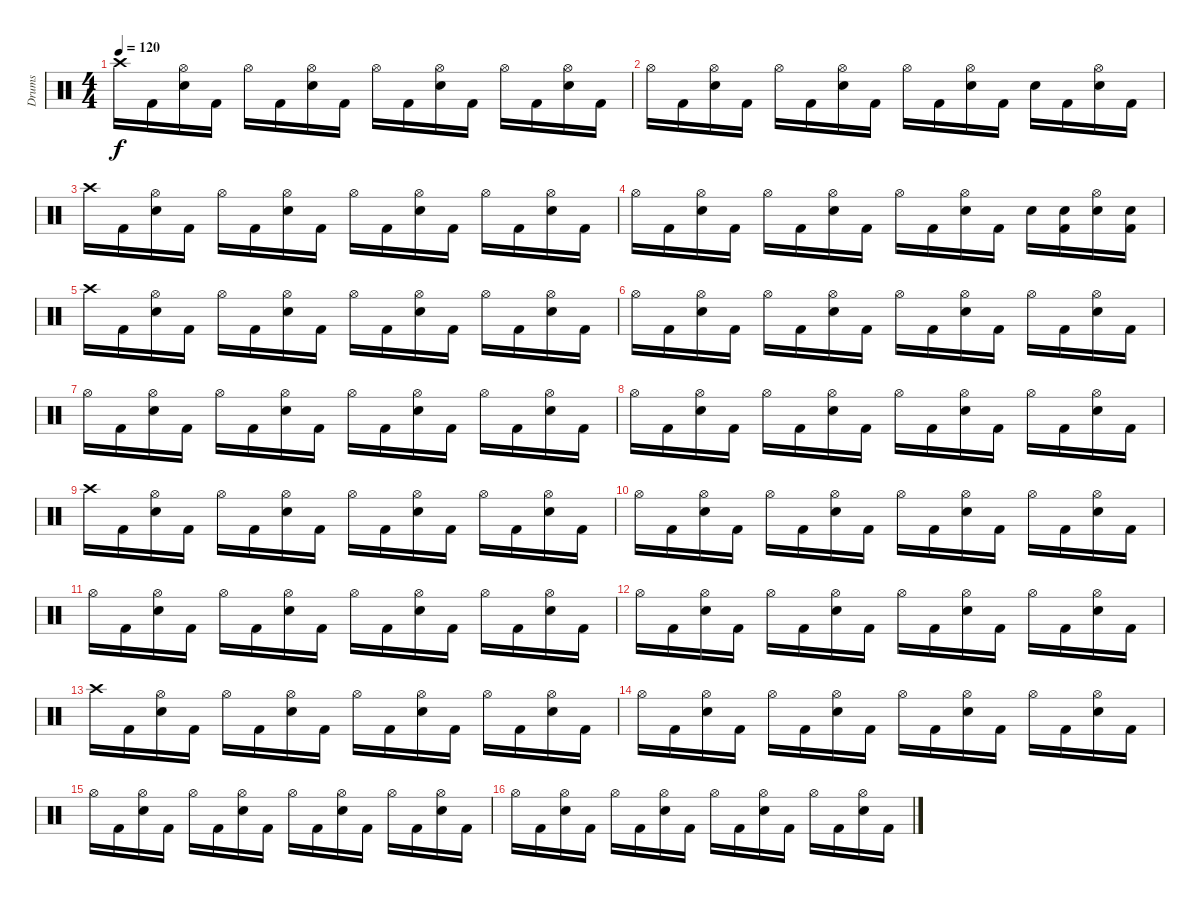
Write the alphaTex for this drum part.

\track ("Drums" "Drums") {instrument percussion}
\staff {score}
\articulation defaults
\ts (4 4)
\tempo 120
\clef neutral
\ks c "Crash high (hit)".16{dy f} "Kick (hit) 2".16
("Snare (hit) 2" "Hi-Hat (open)").16 "Kick (hit) 2".16 "Hi-Hat (open)".16 "Kick (hit) 2".16 ("Snare (hit) 2" "Hi-Hat (open)").16 "Kick (hit) 2".16 "Hi-Hat (open)".16 "Kick (hit) 2".16 ("Snare (hit) 2" "Hi-Hat (open)").16 "Kick (hit) 2".16 "Hi-Hat (open)".16 "Kick (hit) 2".16 ("Snare (hit) 2" "Hi-Hat (open)").16 "Kick (hit) 2".16 |
"Hi-Hat (open)".16 "Kick (hit) 2".16 ("Snare (hit) 2" "Hi-Hat (open)").16 "Kick (hit) 2".16 "Hi-Hat (open)".16 "Kick (hit) 2".16 ("Snare (hit) 2" "Hi-Hat (open)").16 "Kick (hit) 2".16 "Hi-Hat (open)".16 "Kick (hit) 2".16 ("Snare (hit) 2" "Hi-Hat (open)").16 "Kick (hit) 2".16 "Snare (hit) 2".16 "Kick (hit) 2".16 ("Snare (hit) 2" "Hi-Hat (open)").16 "Kick (hit) 2".16 |
"Crash high (hit)".16 "Kick (hit) 2".16 ("Snare (hit) 2" "Hi-Hat (open)").16 "Kick (hit) 2".16 "Hi-Hat (open)".16 "Kick (hit) 2".16 ("Snare (hit) 2" "Hi-Hat (open)").16 "Kick (hit) 2".16 "Hi-Hat (open)".16 "Kick (hit) 2".16 ("Snare (hit) 2" "Hi-Hat (open)").16 "Kick (hit) 2".16 "Hi-Hat (open)".16 "Kick (hit) 2".16 ("Snare (hit) 2" "Hi-Hat (open)").16 "Kick (hit) 2".16 |
"Hi-Hat (open)".16 "Kick (hit) 2".16 ("Snare (hit) 2" "Hi-Hat (open)").16 "Kick (hit) 2".16 "Hi-Hat (open)".16 "Kick (hit) 2".16 ("Snare (hit) 2" "Hi-Hat (open)").16 "Kick (hit) 2".16 "Hi-Hat (open)".16 "Kick (hit) 2".16 ("Snare (hit) 2" "Hi-Hat (open)").16 "Kick (hit) 2".16 "Snare (hit) 2".16 ("Kick (hit) 2" "Snare (hit) 2").16 ("Snare (hit) 2" "Hi-Hat (open)").16 ("Kick (hit) 2" "Snare (hit) 2").16 |
"Crash high (hit)".16 "Kick (hit) 2".16 ("Snare (hit) 2" "Hi-Hat (open)").16 "Kick (hit) 2".16 "Hi-Hat (open)".16 "Kick (hit) 2".16 ("Snare (hit) 2" "Hi-Hat (open)").16 "Kick (hit) 2".16 "Hi-Hat (open)".16 "Kick (hit) 2".16 ("Snare (hit) 2" "Hi-Hat (open)").16 "Kick (hit) 2".16 "Hi-Hat (open)".16 "Kick (hit) 2".16 ("Snare (hit) 2" "Hi-Hat (open)").16 "Kick (hit) 2".16 |
"Hi-Hat (open)".16 "Kick (hit) 2".16 ("Snare (hit) 2" "Hi-Hat (open)").16 "Kick (hit) 2".16 "Hi-Hat (open)".16 "Kick (hit) 2".16 ("Snare (hit) 2" "Hi-Hat (open)").16 "Kick (hit) 2".16 "Hi-Hat (open)".16 "Kick (hit) 2".16 ("Snare (hit) 2" "Hi-Hat (open)").16 "Kick (hit) 2".16 "Hi-Hat (open)".16 "Kick (hit) 2".16 ("Snare (hit) 2" "Hi-Hat (open)").16 "Kick (hit) 2".16 |
"Hi-Hat (open)".16 "Kick (hit) 2".16 ("Snare (hit) 2" "Hi-Hat (open)").16 "Kick (hit) 2".16 "Hi-Hat (open)".16 "Kick (hit) 2".16 ("Snare (hit) 2" "Hi-Hat (open)").16 "Kick (hit) 2".16 "Hi-Hat (open)".16 "Kick (hit) 2".16 ("Snare (hit) 2" "Hi-Hat (open)").16 "Kick (hit) 2".16 "Hi-Hat (open)".16 "Kick (hit) 2".16 ("Snare (hit) 2" "Hi-Hat (open)").16 "Kick (hit) 2".16 |
"Hi-Hat (open)".16 "Kick (hit) 2".16 ("Snare (hit) 2" "Hi-Hat (open)").16 "Kick (hit) 2".16 "Hi-Hat (open)".16 "Kick (hit) 2".16 ("Snare (hit) 2" "Hi-Hat (open)").16 "Kick (hit) 2".16 "Hi-Hat (open)".16 "Kick (hit) 2".16 ("Snare (hit) 2" "Hi-Hat (open)").16 "Kick (hit) 2".16 "Hi-Hat (open)".16 "Kick (hit) 2".16 ("Snare (hit) 2" "Hi-Hat (open)").16 "Kick (hit) 2".16 |
"Crash high (hit)".16 "Kick (hit) 2".16 ("Snare (hit) 2" "Hi-Hat (open)").16 "Kick (hit) 2".16 "Hi-Hat (open)".16 "Kick (hit) 2".16 ("Snare (hit) 2" "Hi-Hat (open)").16 "Kick (hit) 2".16 "Hi-Hat (open)".16 "Kick (hit) 2".16 ("Snare (hit) 2" "Hi-Hat (open)").16 "Kick (hit) 2".16 "Hi-Hat (open)".16 "Kick (hit) 2".16 ("Snare (hit) 2" "Hi-Hat (open)").16 "Kick (hit) 2".16 |
"Hi-Hat (open)".16 "Kick (hit) 2".16 ("Snare (hit) 2" "Hi-Hat (open)").16 "Kick (hit) 2".16 "Hi-Hat (open)".16 "Kick (hit) 2".16 ("Snare (hit) 2" "Hi-Hat (open)").16 "Kick (hit) 2".16 "Hi-Hat (open)".16 "Kick (hit) 2".16 ("Snare (hit) 2" "Hi-Hat (open)").16 "Kick (hit) 2".16 "Hi-Hat (open)".16 "Kick (hit) 2".16 ("Snare (hit) 2" "Hi-Hat (open)").16 "Kick (hit) 2".16 |
"Hi-Hat (open)".16 "Kick (hit) 2".16 ("Snare (hit) 2" "Hi-Hat (open)").16 "Kick (hit) 2".16 "Hi-Hat (open)".16 "Kick (hit) 2".16 ("Snare (hit) 2" "Hi-Hat (open)").16 "Kick (hit) 2".16 "Hi-Hat (open)".16 "Kick (hit) 2".16 ("Snare (hit) 2" "Hi-Hat (open)").16 "Kick (hit) 2".16 "Hi-Hat (open)".16 "Kick (hit) 2".16 ("Snare (hit) 2" "Hi-Hat (open)").16 "Kick (hit) 2".16 |
"Hi-Hat (open)".16 "Kick (hit) 2".16 ("Snare (hit) 2" "Hi-Hat (open)").16 "Kick (hit) 2".16 "Hi-Hat (open)".16 "Kick (hit) 2".16 ("Snare (hit) 2" "Hi-Hat (open)").16 "Kick (hit) 2".16 "Hi-Hat (open)".16 "Kick (hit) 2".16 ("Snare (hit) 2" "Hi-Hat (open)").16 "Kick (hit) 2".16 "Hi-Hat (open)".16 "Kick (hit) 2".16 ("Snare (hit) 2" "Hi-Hat (open)").16 "Kick (hit) 2".16 |
"Crash high (hit)".16 "Kick (hit) 2".16 ("Snare (hit) 2" "Hi-Hat (open)").16 "Kick (hit) 2".16 "Hi-Hat (open)".16 "Kick (hit) 2".16 ("Snare (hit) 2" "Hi-Hat (open)").16 "Kick (hit) 2".16 "Hi-Hat (open)".16 "Kick (hit) 2".16 ("Snare (hit) 2" "Hi-Hat (open)").16 "Kick (hit) 2".16 "Hi-Hat (open)".16 "Kick (hit) 2".16 ("Snare (hit) 2" "Hi-Hat (open)").16 "Kick (hit) 2".16 |
"Hi-Hat (open)".16 "Kick (hit) 2".16 ("Snare (hit) 2" "Hi-Hat (open)").16 "Kick (hit) 2".16 "Hi-Hat (open)".16 "Kick (hit) 2".16 ("Snare (hit) 2" "Hi-Hat (open)").16 "Kick (hit) 2".16 "Hi-Hat (open)".16 "Kick (hit) 2".16 ("Snare (hit) 2" "Hi-Hat (open)").16 "Kick (hit) 2".16 "Hi-Hat (open)".16 "Kick (hit) 2".16 ("Snare (hit) 2" "Hi-Hat (open)").16 "Kick (hit) 2".16 |
"Hi-Hat (open)".16 "Kick (hit) 2".16 ("Snare (hit) 2" "Hi-Hat (open)").16 "Kick (hit) 2".16 "Hi-Hat (open)".16 "Kick (hit) 2".16 ("Snare (hit) 2" "Hi-Hat (open)").16 "Kick (hit) 2".16 "Hi-Hat (open)".16 "Kick (hit) 2".16 ("Snare (hit) 2" "Hi-Hat (open)").16 "Kick (hit) 2".16 "Hi-Hat (open)".16 "Kick (hit) 2".16 ("Snare (hit) 2" "Hi-Hat (open)").16 "Kick (hit) 2".16 |
"Hi-Hat (open)".16 "Kick (hit) 2".16 ("Snare (hit) 2" "Hi-Hat (open)").16 "Kick (hit) 2".16 "Hi-Hat (open)".16 "Kick (hit) 2".16 ("Snare (hit) 2" "Hi-Hat (open)").16 "Kick (hit) 2".16 "Hi-Hat (open)".16 "Kick (hit) 2".16 ("Snare (hit) 2" "Hi-Hat (open)").16 "Kick (hit) 2".16 "Hi-Hat (open)".16 "Kick (hit) 2".16 ("Snare (hit) 2" "Hi-Hat (open)").16 "Kick (hit) 2".16
